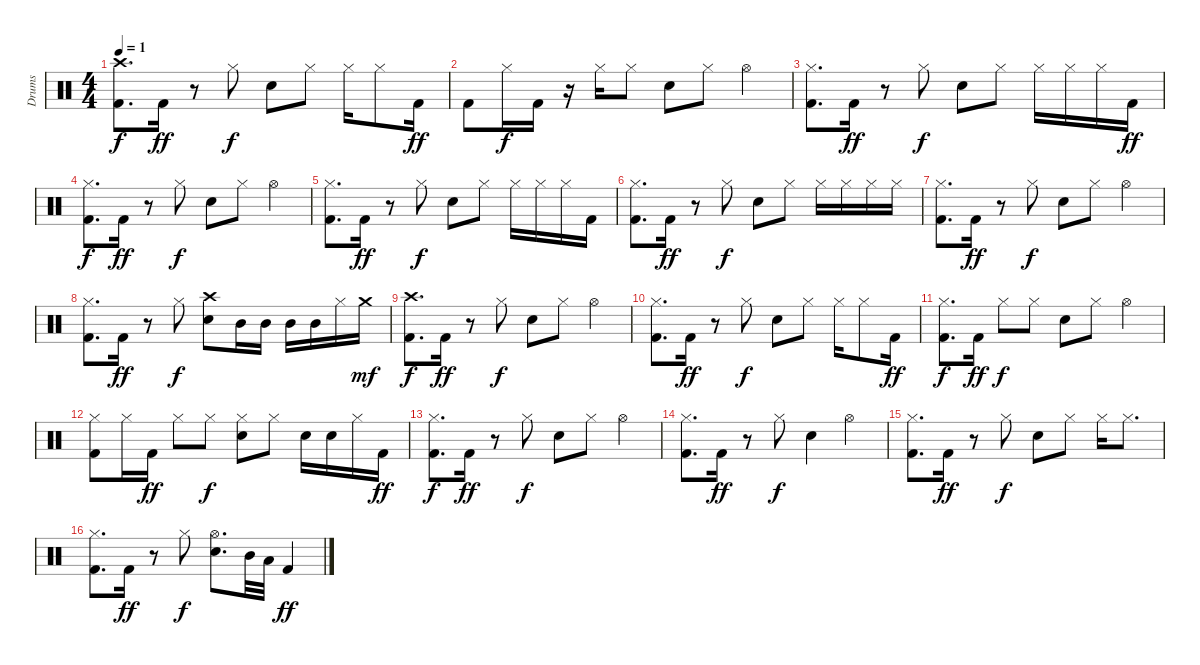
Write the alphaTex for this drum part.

\track ("Drums" "Drums") {instrument percussion}
\staff {score}
\articulation defaults
\ts (4 4)
\tempo 1
\clef neutral
\ks c
("Crash high (hit)" "Kick (hit) 2").8{d dy f} "Kick (hit) 2".16{dy ff} r.8 "Hi-Hat (closed)".8{dy f} "Snare (hit) 2".8 "Hi-Hat (closed)".8 "Hi-Hat (closed)".16 "Hi-Hat (closed)".8 "Kick (hit) 2".16{dy ff} |
"Kick (hit) 2".8 "Hi-Hat (closed)".16{dy f} "Kick (hit) 2".16 r.16 "Hi-Hat (closed)".16 "Hi-Hat (closed)".8 "Snare (hit) 2".8 "Hi-Hat (closed)".8 "Hi-Hat (open)".4 |
("Hi-Hat (closed)" "Kick (hit) 2").8{d} "Kick (hit) 2".16{dy ff} r.8 "Hi-Hat (closed)".8{dy f} "Snare (hit) 2".8 "Hi-Hat (closed)".8 "Hi-Hat (closed)".16 "Hi-Hat (closed)".16 "Hi-Hat (closed)".16 "Kick (hit) 2".16{dy ff} |
("Hi-Hat (closed)" "Kick (hit) 2").8{d dy f} "Kick (hit) 2".16{dy ff} r.8 "Hi-Hat (closed)".8{dy f} "Snare (hit) 2".8 "Hi-Hat (closed)".8 "Hi-Hat (open)".4 |
("Hi-Hat (closed)" "Kick (hit) 2").8{d} "Kick (hit) 2".16{dy ff} r.8 "Hi-Hat (closed)".8{dy f} "Snare (hit) 2".8 "Hi-Hat (closed)".8 "Hi-Hat (closed)".16 "Hi-Hat (closed)".16 "Hi-Hat (closed)".16 "Kick (hit) 2".16 |
("Hi-Hat (closed)" "Kick (hit) 2").8{d} "Kick (hit) 2".16{dy ff} r.8 "Hi-Hat (closed)".8{dy f} "Snare (hit) 2".8 "Hi-Hat (closed)".8 "Hi-Hat (closed)".16 "Hi-Hat (closed)".16 "Hi-Hat (closed)".16 "Hi-Hat (closed)".16 |
("Hi-Hat (closed)" "Kick (hit) 2").8{d} "Kick (hit) 2".16{dy ff} r.8 "Hi-Hat (closed)".8{dy f} "Snare (hit) 2".8 "Hi-Hat (closed)".8 "Hi-Hat (open)".4 |
("Hi-Hat (closed)" "Kick (hit) 2").8{d} "Kick (hit) 2".16{dy ff} r.8 "Hi-Hat (closed)".8{dy f} ("Crash high (hit)" "Snare (hit) 2").8 "Mid Tom (hit)".16 "Mid Tom (hit)".16 "Mid Tom (hit)".16 "Mid Tom (hit)".16 "Hi-Hat (closed)".16 "Crash medium (hit)".16{dy mf} |
("Crash high (hit)" "Kick (hit) 2").8{d dy f} "Kick (hit) 2".16{dy ff} r.8 "Hi-Hat (closed)".8{dy f} "Snare (hit) 2".8 "Hi-Hat (closed)".8 "Hi-Hat (open)".4 |
("Hi-Hat (closed)" "Kick (hit) 2").8{d} "Kick (hit) 2".16{dy ff} r.8 "Hi-Hat (closed)".8{dy f} "Snare (hit) 2".8 "Hi-Hat (closed)".8 "Hi-Hat (closed)".16 "Hi-Hat (closed)".8 "Kick (hit) 2".16{dy ff} |
("Hi-Hat (closed)" "Kick (hit) 2").8{d dy f} "Kick (hit) 2".16{dy ff} "Hi-Hat (closed)".8{dy f} "Hi-Hat (closed)".8 "Snare (hit) 2".8 "Hi-Hat (closed)".8 "Hi-Hat (open)".4 |
("Hi-Hat (closed)" "Kick (hit) 2").8 "Hi-Hat (closed)".16 "Kick (hit) 2".16{dy ff} "Hi-Hat (closed)".8 "Hi-Hat (closed)".8{dy f} ("Snare (hit) 2" "Hi-Hat (closed)").8 "Hi-Hat (closed)".8 "Snare (hit) 2".16 "Snare (hit) 2".16 "Hi-Hat (closed)".16 "Kick (hit) 2".16{dy ff} |
("Hi-Hat (closed)" "Kick (hit) 2").8{d dy f} "Kick (hit) 2".16{dy ff} r.8 "Hi-Hat (closed)".8{dy f} "Snare (hit) 2".8 "Hi-Hat (closed)".8 "Hi-Hat (open)".4 |
("Hi-Hat (closed)" "Kick (hit) 2").8{d} "Kick (hit) 2".16{dy ff} r.8 "Hi-Hat (closed)".8{dy f} "Snare (hit) 2".4 "Hi-Hat (open)".4 |
("Hi-Hat (closed)" "Kick (hit) 2").8{d} "Kick (hit) 2".16{dy ff} r.8 "Hi-Hat (closed)".8{dy f} "Snare (hit) 2".8 "Hi-Hat (closed)".8 "Hi-Hat (closed)".16 "Hi-Hat (closed)".8{d} |
("Hi-Hat (closed)" "Kick (hit) 2").8{d} "Kick (hit) 2".16{dy ff} r.8 "Hi-Hat (closed)".8{dy f} ("Hi-Hat (open)" "Snare (hit) 2").8{d} "Mid Tom (hit)".32 "Low Tom (hit)".32 "Kick (hit) 2".4{dy ff}
